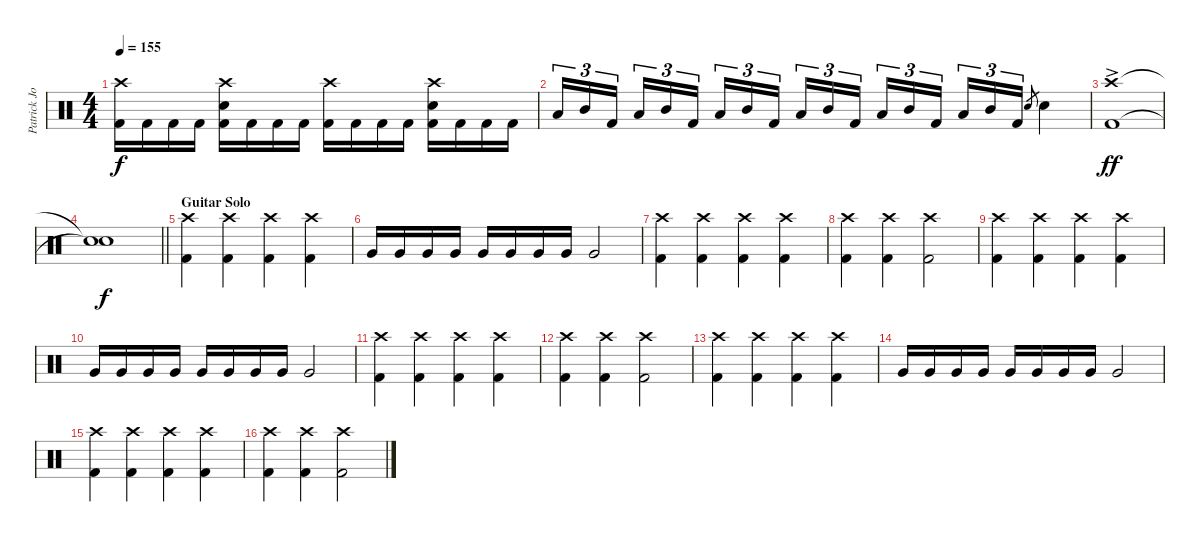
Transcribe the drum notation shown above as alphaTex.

\track ("Patrick Johansson" "Patrick Jo") {instrument percussion}
\staff {score}
\articulation defaults
\ts (4 4)
\tempo 155
\clef neutral
\ks c
("Crash high (hit)" "Kick (hit) 2").16{dy f} "Kick (hit) 2".16 "Kick (hit) 2".16 "Kick (hit) 2".16 ("Crash high (hit)" "Electric Snare (hit)" "Kick (hit) 2").16 "Kick (hit) 2".16 "Kick (hit) 2".16 "Kick (hit) 2".16 ("Crash high (hit)" "Kick (hit) 2").16 "Kick (hit) 2".16 "Kick (hit) 2".16 "Kick (hit) 2".16 ("Crash high (hit)" "Electric Snare (hit)" "Kick (hit) 2").16 "Kick (hit) 2".16 "Kick (hit) 2".16 "Kick (hit) 2".16 |
"Low Tom (hit)".16{tu (3 2)} "Mid Tom (hit)".16{tu (3 2)} "Kick (hit) 2".16{tu (3 2) beam splitsecondary} "Low Tom (hit)".16{tu (3 2)} "Mid Tom (hit)".16{tu (3 2)} "Kick (hit) 2".16{tu (3 2)} "Low Tom (hit)".16{tu (3 2)} "Mid Tom (hit)".16{tu (3 2)} "Kick (hit) 2".16{tu (3 2) beam splitsecondary} "Low Tom (hit)".16{tu (3 2)} "Mid Tom (hit)".16{tu (3 2)} "Kick (hit) 2".16{tu (3 2)} "Low Tom (hit)".16{tu (3 2)} "Mid Tom (hit)".16{tu (3 2)} "Kick (hit) 2".16{tu (3 2) beam splitsecondary} "Low Tom (hit)".16{tu (3 2)} "Mid Tom (hit)".16{tu (3 2)} "Kick (hit) 2".16{tu (3 2)} "Electric Snare (hit)".8{gr} "Electric Snare (hit)".4 |
("Crash high (hit)"{ac} "Kick (hit) 2").1{dy ff} |
\barLineRight lightlight
("Snare (hit)"{t} "Snare (hit)"{t}).1{dy f} |
\section ("" "Guitar Solo")
("Crash high (hit)" "Kick (hit) 2").4 ("Crash high (hit)" "Kick (hit) 2").4 ("Crash high (hit)" "Kick (hit) 2").4 ("Crash high (hit)" "Kick (hit) 2").4 |
"Very Low Tom (hit)".16 "Very Low Tom (hit)".16 "Very Low Tom (hit)".16 "Very Low Tom (hit)".16 "Very Low Tom (hit)".16 "Very Low Tom (hit)".16 "Very Low Tom (hit)".16 "Very Low Tom (hit)".16 "Very Low Tom (hit)".2 |
("Crash high (hit)" "Kick (hit) 2").4 ("Crash high (hit)" "Kick (hit) 2").4 ("Crash high (hit)" "Kick (hit) 2").4 ("Crash high (hit)" "Kick (hit) 2").4 |
("Crash high (hit)" "Kick (hit) 2").4 ("Crash high (hit)" "Kick (hit) 2").4 ("Crash high (hit)" "Kick (hit) 2").2 |
("Crash high (hit)" "Kick (hit) 2").4 ("Crash high (hit)" "Kick (hit) 2").4 ("Crash high (hit)" "Kick (hit) 2").4 ("Crash high (hit)" "Kick (hit) 2").4 |
"Very Low Tom (hit)".16 "Very Low Tom (hit)".16 "Very Low Tom (hit)".16 "Very Low Tom (hit)".16 "Very Low Tom (hit)".16 "Very Low Tom (hit)".16 "Very Low Tom (hit)".16 "Very Low Tom (hit)".16 "Very Low Tom (hit)".2 |
("Crash high (hit)" "Kick (hit) 2").4 ("Crash high (hit)" "Kick (hit) 2").4 ("Crash high (hit)" "Kick (hit) 2").4 ("Crash high (hit)" "Kick (hit) 2").4 |
("Crash high (hit)" "Kick (hit) 2").4 ("Crash high (hit)" "Kick (hit) 2").4 ("Crash high (hit)" "Kick (hit) 2").2 |
("Crash high (hit)" "Kick (hit) 2").4 ("Crash high (hit)" "Kick (hit) 2").4 ("Crash high (hit)" "Kick (hit) 2").4 ("Crash high (hit)" "Kick (hit) 2").4 |
"Very Low Tom (hit)".16 "Very Low Tom (hit)".16 "Very Low Tom (hit)".16 "Very Low Tom (hit)".16 "Very Low Tom (hit)".16 "Very Low Tom (hit)".16 "Very Low Tom (hit)".16 "Very Low Tom (hit)".16 "Very Low Tom (hit)".2 |
("Crash high (hit)" "Kick (hit) 2").4 ("Crash high (hit)" "Kick (hit) 2").4 ("Crash high (hit)" "Kick (hit) 2").4 ("Crash high (hit)" "Kick (hit) 2").4 |
("Crash high (hit)" "Kick (hit) 2").4 ("Crash high (hit)" "Kick (hit) 2").4 ("Crash high (hit)" "Kick (hit) 2").2
